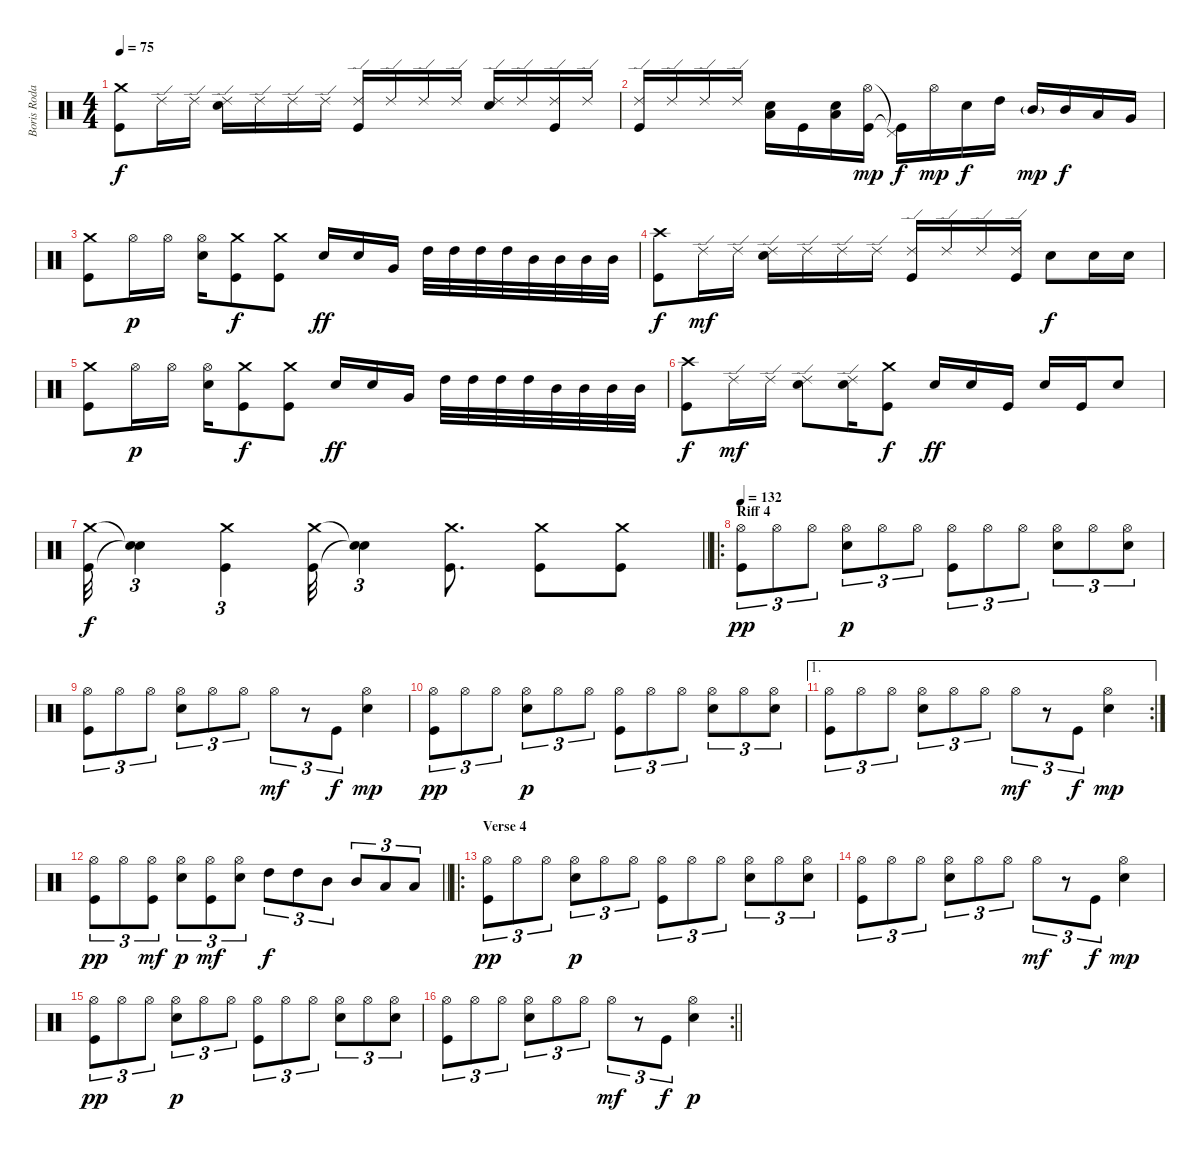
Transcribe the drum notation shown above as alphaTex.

\track ("Boris Rodas" "Boris Roda") {instrument percussion}
\staff {score}
\articulation defaults
\ts (4 4)
\tempo 75
\clef neutral
\ks c
("Crash medium (hit)" "Kick (hit)").8{dy f} "Ride (edge) 2".16 "Ride (edge) 2".16 ("Ride (edge) 2" "Electric Snare (hit)").16 "Ride (edge) 2".16 "Ride (edge) 2".16 "Ride (edge) 2".16 ("Ride (edge) 2" "Kick (hit)").16 "Ride (edge) 2".16 "Ride (edge) 2".16 "Ride (edge) 2".16 ("Ride (edge) 2" "Electric Snare (hit)").16 "Ride (edge) 2".16 ("Ride (edge) 2" "Kick (hit)").16 "Ride (edge) 2".16 |
("Ride (edge) 2" "Kick (hit)").16 "Ride (edge) 2".16 "Ride (edge) 2".16 "Ride (edge) 2".16 ("Low Floor Tom (hit)" "Electric Snare (hit)").16 "Kick (hit)".16 ("Low Floor Tom (hit)" "Electric Snare (hit)").16 ("Hi-Hat (open)" "Kick (hit)").16{dy mp} ("Pedal Hi-Hat (hit)"{t} "Kick (hit)"{t}).16{dy f} "Hi-Hat (open)".16{dy mp} "Electric Snare (hit)".16{dy f} "High Tom (hit)".16 "Mid Tom (hit)"{g}.16{dy mp} "Mid Tom (hit)".16{dy f} "Low Tom (hit)".16 "Very Low Tom (hit)".16 |
("Crash medium (hit)" "Kick (hit)").8 "Hi-Hat (open)".16{dy p} "Hi-Hat (open)".16 ("Hi-Hat (open)" "Electric Snare (hit)").16 ("Crash medium (hit)" "Kick (hit)").8{dy f} ("Crash medium (hit)" "Kick (hit)").8 "Electric Snare (hit)".16{dy ff} "Electric Snare (hit)".16 "Very Low Tom (hit)".16 "High Tom (hit)".32 "High Tom (hit)".32 "High Tom (hit)".32 "High Tom (hit)".32 "Mid Tom (hit)".32 "Mid Tom (hit)".32 "Mid Tom (hit)".32 "Mid Tom (hit)".32 |
("Crash high (hit)" "Kick (hit)").8{dy f} "Ride (edge) 2".16{dy mf} "Ride (edge) 2".16 ("Ride (edge) 2" "Electric Snare (hit)").16 "Ride (edge) 2".16 "Ride (edge) 2".16 "Ride (edge) 2".16 ("Ride (edge) 2" "Kick (hit)").16 "Ride (edge) 2".16 "Ride (edge) 2".16 ("Ride (edge) 2" "Kick (hit)").16 "Electric Snare (hit)".8{dy f} "Electric Snare (hit)".16 "Electric Snare (hit)".16 |
("Crash medium (hit)" "Kick (hit)").8 "Hi-Hat (open)".16{dy p} "Hi-Hat (open)".16 ("Hi-Hat (open)" "Electric Snare (hit)").16 ("Crash medium (hit)" "Kick (hit)").8{dy f} ("Crash medium (hit)" "Kick (hit)").8 "Electric Snare (hit)".16{dy ff} "Electric Snare (hit)".16 "Very Low Tom (hit)".16 "High Tom (hit)".32 "High Tom (hit)".32 "High Tom (hit)".32 "High Tom (hit)".32 "Mid Tom (hit)".32 "Mid Tom (hit)".32 "Mid Tom (hit)".32 "Mid Tom (hit)".32 |
("Crash high (hit)" "Kick (hit)").8{dy f} "Ride (edge) 2".16{dy mf} "Ride (edge) 2".16 ("Ride (edge) 2" "Electric Snare (hit)").8 ("Ride (edge) 2" "Electric Snare (hit)").16 ("Crash medium (hit)" "Kick (hit)").8{dy f} "Electric Snare (hit)".16{dy ff} "Electric Snare (hit)".16 "Kick (hit)".16 "Electric Snare (hit)".16 "Kick (hit)".16 "Electric Snare (hit)".8 |
\barLineRight lightlight
("Crash medium (hit)" "Kick (hit)").32{dy f} ("Snare (hit)"{t} "Snare (hit)"{t}).4{tu (3 2)} ("Crash medium (hit)" "Kick (hit)").4{tu (3 2)} ("Crash medium (hit)" "Kick (hit)").32 ("Snare (hit)"{t} "Snare (hit)"{t}).4{tu (3 2)} ("Crash medium (hit)" "Kick (hit)").8{d} ("Crash medium (hit)" "Kick (hit)").8 ("Crash medium (hit)" "Kick (hit)").8 |
\ro
\section ("" "Riff 4")
\tempo 132
("Hi-Hat (open)" "Kick (hit)").8{tu (3 2) dy pp} "Hi-Hat (open)".8{tu (3 2)} "Hi-Hat (open)".8{tu (3 2)} ("Hi-Hat (open)" "Electric Snare (hit)").8{tu (3 2) dy p} "Hi-Hat (open)".8{tu (3 2)} "Hi-Hat (open)".8{tu (3 2)} ("Hi-Hat (open)" "Kick (hit)").8{tu (3 2)} "Hi-Hat (open)".8{tu (3 2)} "Hi-Hat (open)".8{tu (3 2)} ("Hi-Hat (open)" "Electric Snare (hit)").8{tu (3 2)} "Hi-Hat (open)".8{tu (3 2)} ("Hi-Hat (open)" "Electric Snare (hit)").8{tu (3 2)} |
("Hi-Hat (open)" "Kick (hit)").8{tu (3 2)} "Hi-Hat (open)".8{tu (3 2)} "Hi-Hat (open)".8{tu (3 2)} ("Hi-Hat (open)" "Electric Snare (hit)").8{tu (3 2)} "Hi-Hat (open)".8{tu (3 2)} "Hi-Hat (open)".8{tu (3 2)} "Hi-Hat (open)".8{tu (3 2) dy mf} r.8{tu (3 2)} "Kick (hit)".8{tu (3 2) dy f} ("Hi-Hat (open)" "Electric Snare (hit)").4{dy mp} |
("Hi-Hat (open)" "Kick (hit)").8{tu (3 2) dy pp} "Hi-Hat (open)".8{tu (3 2)} "Hi-Hat (open)".8{tu (3 2)} ("Hi-Hat (open)" "Electric Snare (hit)").8{tu (3 2) dy p} "Hi-Hat (open)".8{tu (3 2)} "Hi-Hat (open)".8{tu (3 2)} ("Hi-Hat (open)" "Kick (hit)").8{tu (3 2)} "Hi-Hat (open)".8{tu (3 2)} "Hi-Hat (open)".8{tu (3 2)} ("Hi-Hat (open)" "Electric Snare (hit)").8{tu (3 2)} "Hi-Hat (open)".8{tu (3 2)} ("Hi-Hat (open)" "Electric Snare (hit)").8{tu (3 2)} |
\ae 1
\rc 2
("Hi-Hat (open)" "Kick (hit)").8{tu (3 2)} "Hi-Hat (open)".8{tu (3 2)} "Hi-Hat (open)".8{tu (3 2)} ("Hi-Hat (open)" "Electric Snare (hit)").8{tu (3 2)} "Hi-Hat (open)".8{tu (3 2)} "Hi-Hat (open)".8{tu (3 2)} "Hi-Hat (open)".8{tu (3 2) dy mf} r.8{tu (3 2)} "Kick (hit)".8{tu (3 2) dy f} ("Hi-Hat (open)" "Electric Snare (hit)").4{dy mp} |
\barLineRight lightlight
("Hi-Hat (open)" "Kick (hit)").8{tu (3 2) dy pp} "Hi-Hat (open)".8{tu (3 2)} ("Hi-Hat (open)" "Kick (hit)").8{tu (3 2) dy mf} ("Hi-Hat (open)" "Electric Snare (hit)").8{tu (3 2) dy p} ("Hi-Hat (open)" "Kick (hit)").8{tu (3 2) dy mf} ("Hi-Hat (open)" "Electric Snare (hit)").8{tu (3 2)} "High Tom (hit)".8{tu (3 2) dy f} "High Tom (hit)".8{tu (3 2)} "Mid Tom (hit)".8{tu (3 2)} "Mid Tom (hit)".8{tu (3 2)} "Low Tom (hit)".8{tu (3 2)} "Low Tom (hit)".8{tu (3 2)} |
\ro
\section ("" "Verse 4")
("Hi-Hat (open)" "Kick (hit)").8{tu (3 2) dy pp} "Hi-Hat (open)".8{tu (3 2)} "Hi-Hat (open)".8{tu (3 2)} ("Hi-Hat (open)" "Electric Snare (hit)").8{tu (3 2) dy p} "Hi-Hat (open)".8{tu (3 2)} "Hi-Hat (open)".8{tu (3 2)} ("Hi-Hat (open)" "Kick (hit)").8{tu (3 2)} "Hi-Hat (open)".8{tu (3 2)} "Hi-Hat (open)".8{tu (3 2)} ("Hi-Hat (open)" "Electric Snare (hit)").8{tu (3 2)} "Hi-Hat (open)".8{tu (3 2)} ("Hi-Hat (open)" "Electric Snare (hit)").8{tu (3 2)} |
("Hi-Hat (open)" "Kick (hit)").8{tu (3 2)} "Hi-Hat (open)".8{tu (3 2)} "Hi-Hat (open)".8{tu (3 2)} ("Hi-Hat (open)" "Electric Snare (hit)").8{tu (3 2)} "Hi-Hat (open)".8{tu (3 2)} "Hi-Hat (open)".8{tu (3 2)} "Hi-Hat (open)".8{tu (3 2) dy mf} r.8{tu (3 2)} "Kick (hit)".8{tu (3 2) dy f} ("Hi-Hat (open)" "Electric Snare (hit)").4{dy mp} |
("Hi-Hat (open)" "Kick (hit)").8{tu (3 2) dy pp} "Hi-Hat (open)".8{tu (3 2)} "Hi-Hat (open)".8{tu (3 2)} ("Hi-Hat (open)" "Electric Snare (hit)").8{tu (3 2) dy p} "Hi-Hat (open)".8{tu (3 2)} "Hi-Hat (open)".8{tu (3 2)} ("Hi-Hat (open)" "Kick (hit)").8{tu (3 2)} "Hi-Hat (open)".8{tu (3 2)} "Hi-Hat (open)".8{tu (3 2)} ("Hi-Hat (open)" "Electric Snare (hit)").8{tu (3 2)} "Hi-Hat (open)".8{tu (3 2)} ("Hi-Hat (open)" "Electric Snare (hit)").8{tu (3 2)} |
\rc 2
\barLineRight lightlight
("Hi-Hat (open)" "Kick (hit)").8{tu (3 2)} "Hi-Hat (open)".8{tu (3 2)} "Hi-Hat (open)".8{tu (3 2)} ("Hi-Hat (open)" "Electric Snare (hit)").8{tu (3 2)} "Hi-Hat (open)".8{tu (3 2)} "Hi-Hat (open)".8{tu (3 2)} "Hi-Hat (open)".8{tu (3 2) dy mf} r.8{tu (3 2)} "Kick (hit)".8{tu (3 2) dy f} ("Hi-Hat (open)" "Electric Snare (hit)").4{dy p}
